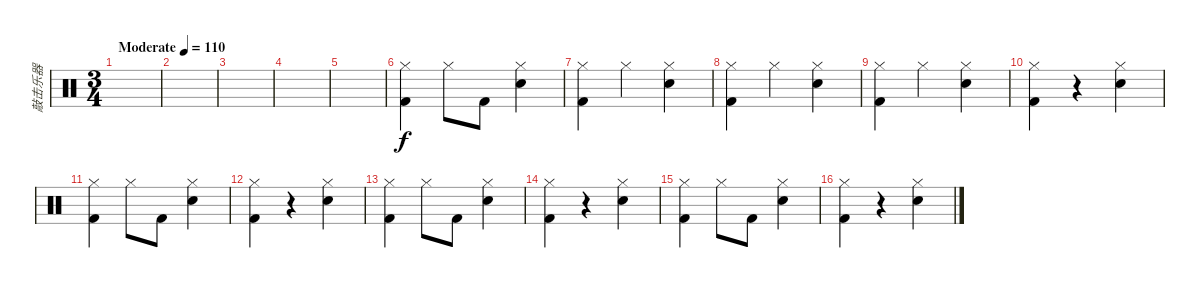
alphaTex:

\track ("敲击乐器" "敲击乐器") {instrument percussion}
\staff {score}
\articulation defaults
\ts (3 4)
\tempo (110 "Moderate")
\clef neutral
\ks c
|
|
|
|
|
("Hi-Hat (closed)" "Kick (hit) 2").4 "Hi-Hat (closed)".8 "Kick (hit) 2".8 ("Hi-Hat (closed)" "Electric Snare (hit)").4 |
("Hi-Hat (closed)" "Kick (hit) 2").4 "Hi-Hat (closed)".4 ("Hi-Hat (closed)" "Electric Snare (hit)").4 |
("Hi-Hat (closed)" "Kick (hit) 2").4 "Hi-Hat (closed)".4 ("Hi-Hat (closed)" "Electric Snare (hit)").4 |
("Hi-Hat (closed)" "Kick (hit) 2").4 "Hi-Hat (closed)".4 ("Hi-Hat (closed)" "Electric Snare (hit)").4 |
("Hi-Hat (closed)" "Kick (hit) 2").4 r.4 ("Hi-Hat (closed)" "Electric Snare (hit)").4 |
("Hi-Hat (closed)" "Kick (hit) 2").4 "Hi-Hat (closed)".8 "Kick (hit) 2".8 ("Hi-Hat (closed)" "Electric Snare (hit)").4 |
("Hi-Hat (closed)" "Kick (hit) 2").4 r.4 ("Hi-Hat (closed)" "Electric Snare (hit)").4 |
("Hi-Hat (closed)" "Kick (hit) 2").4 "Hi-Hat (closed)".8 "Kick (hit) 2".8 ("Hi-Hat (closed)" "Electric Snare (hit)").4 |
("Hi-Hat (closed)" "Kick (hit) 2").4 r.4 ("Hi-Hat (closed)" "Electric Snare (hit)").4 |
("Hi-Hat (closed)" "Kick (hit) 2").4 "Hi-Hat (closed)".8 "Kick (hit) 2".8 ("Hi-Hat (closed)" "Electric Snare (hit)").4 |
("Hi-Hat (closed)" "Kick (hit) 2").4 r.4 ("Hi-Hat (closed)" "Electric Snare (hit)").4
